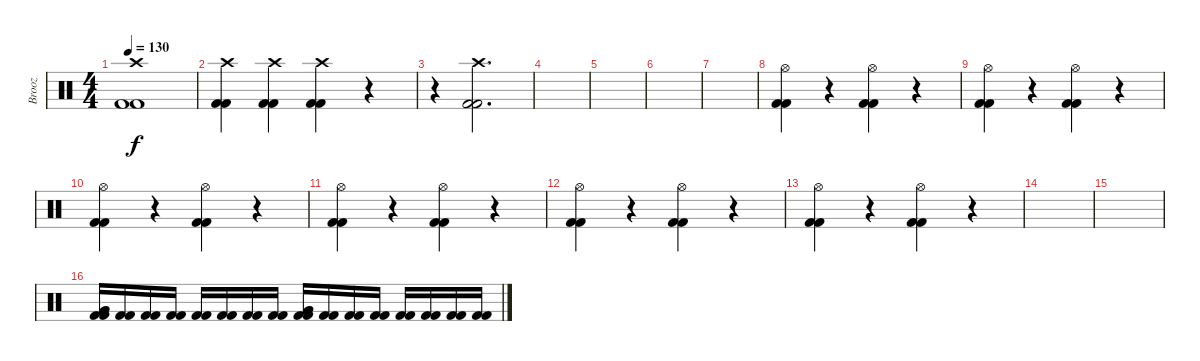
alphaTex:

\track ("Brooz" "Brooz") {instrument percussion}
\staff {score}
\articulation defaults
\ts (4 4)
\tempo 130
\clef neutral
\ks c
("Crash high (hit)" "Kick (hit) 2" "Kick (hit) 2").1{dy f} |
("Crash high (hit)" "Kick (hit) 2" "Kick (hit) 2").4 ("Crash high (hit)" "Kick (hit) 2" "Kick (hit) 2").4 ("Crash high (hit)" "Kick (hit) 2" "Kick (hit) 2").4 r.4 |
r.4 ("Crash high (hit)" "Kick (hit) 2" "Kick (hit) 2").2{d} |
|
|
|
|
("Hi-Hat (open)" "Kick (hit) 2" "Kick (hit) 2").4 r.4 ("Hi-Hat (open)" "Kick (hit) 2" "Kick (hit) 2").4 r.4 |
("Hi-Hat (open)" "Kick (hit) 2" "Kick (hit) 2").4 r.4 ("Hi-Hat (open)" "Kick (hit) 2" "Kick (hit) 2").4 r.4 |
("Hi-Hat (open)" "Kick (hit) 2" "Kick (hit) 2").4 r.4 ("Hi-Hat (open)" "Kick (hit) 2" "Kick (hit) 2").4 r.4 |
("Hi-Hat (open)" "Kick (hit) 2" "Kick (hit) 2").4 r.4 ("Hi-Hat (open)" "Kick (hit) 2" "Kick (hit) 2").4 r.4 |
("Hi-Hat (open)" "Kick (hit) 2" "Kick (hit) 2").4 r.4 ("Hi-Hat (open)" "Kick (hit) 2" "Kick (hit) 2").4 r.4 |
("Hi-Hat (open)" "Kick (hit) 2" "Kick (hit) 2").4 r.4 ("Hi-Hat (open)" "Kick (hit) 2" "Kick (hit) 2").4 r.4 |
|
|
("Very Low Tom (hit)" "Very Low Tom (hit)" "Kick (hit) 2" "Kick (hit) 2").16 ("Kick (hit) 2" "Kick (hit) 2").16 ("Kick (hit) 2" "Kick (hit) 2").16 ("Kick (hit) 2" "Kick (hit) 2").16 ("Kick (hit) 2" "Kick (hit) 2").16 ("Kick (hit) 2" "Kick (hit) 2").16 ("Kick (hit) 2" "Kick (hit) 2").16 ("Kick (hit) 2" "Kick (hit) 2").16 ("Very Low Tom (hit)" "Very Low Tom (hit)" "Kick (hit) 2" "Kick (hit) 2").16 ("Kick (hit) 2" "Kick (hit) 2").16 ("Kick (hit) 2" "Kick (hit) 2").16 ("Kick (hit) 2" "Kick (hit) 2").16 ("Kick (hit) 2" "Kick (hit) 2").16 ("Kick (hit) 2" "Kick (hit) 2").16 ("Kick (hit) 2" "Kick (hit) 2").16 ("Kick (hit) 2" "Kick (hit) 2").16
